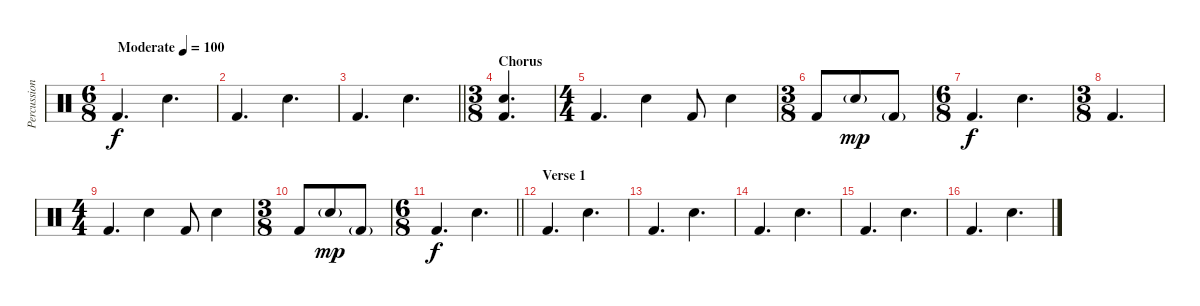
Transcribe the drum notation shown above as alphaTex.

\track ("Percussion" "Percussion") {instrument percussion}
\staff {score}
\articulation defaults
\ts (6 8)
\tempo (100 "Moderate")
\clef neutral
\ks c "Kick (hit) 2".4{d dy f} "Snare (hit) 2".4{d}
|
"Kick (hit) 2".4{d} "Snare (hit) 2".4{d} |
\barLineRight lightlight "Kick (hit) 2".4{d} "Snare (hit) 2".4{d}
|
\ts (3 8)
\section ("" "Chorus")
("Snare (hit) 2" "Kick (hit) 2").4{d} |
\ts (4 4)
"Kick (hit) 2".4{d} "Snare (hit) 2".4 "Kick (hit) 2".8 "Snare (hit) 2".4 |
\ts (3 8)
"Kick (hit) 2".8 "Snare (hit) 2"{g}.8{dy mp} "Kick (hit) 2"{g}.8 |
\ts (6 8)
"Kick (hit) 2".4{d dy f} "Snare (hit) 2".4{d} |
\ts (3 8)
"Kick (hit) 2".4{d} |
\ts (4 4)
"Kick (hit) 2".4{d} "Snare (hit) 2".4 "Kick (hit) 2".8 "Snare (hit) 2".4 |
\ts (3 8)
"Kick (hit) 2".8 "Snare (hit) 2"{g}.8{dy mp} "Kick (hit) 2"{g}.8 |
\ts (6 8)
\barLineRight lightlight "Kick (hit) 2".4{d dy f} "Snare (hit) 2".4{d}
|
\section ("" "Verse 1")
"Kick (hit) 2".4{d} "Snare (hit) 2".4{d} |
"Kick (hit) 2".4{d} "Snare (hit) 2".4{d} |
"Kick (hit) 2".4{d} "Snare (hit) 2".4{d} |
"Kick (hit) 2".4{d} "Snare (hit) 2".4{d} |
"Kick (hit) 2".4{d} "Snare (hit) 2".4{d}
